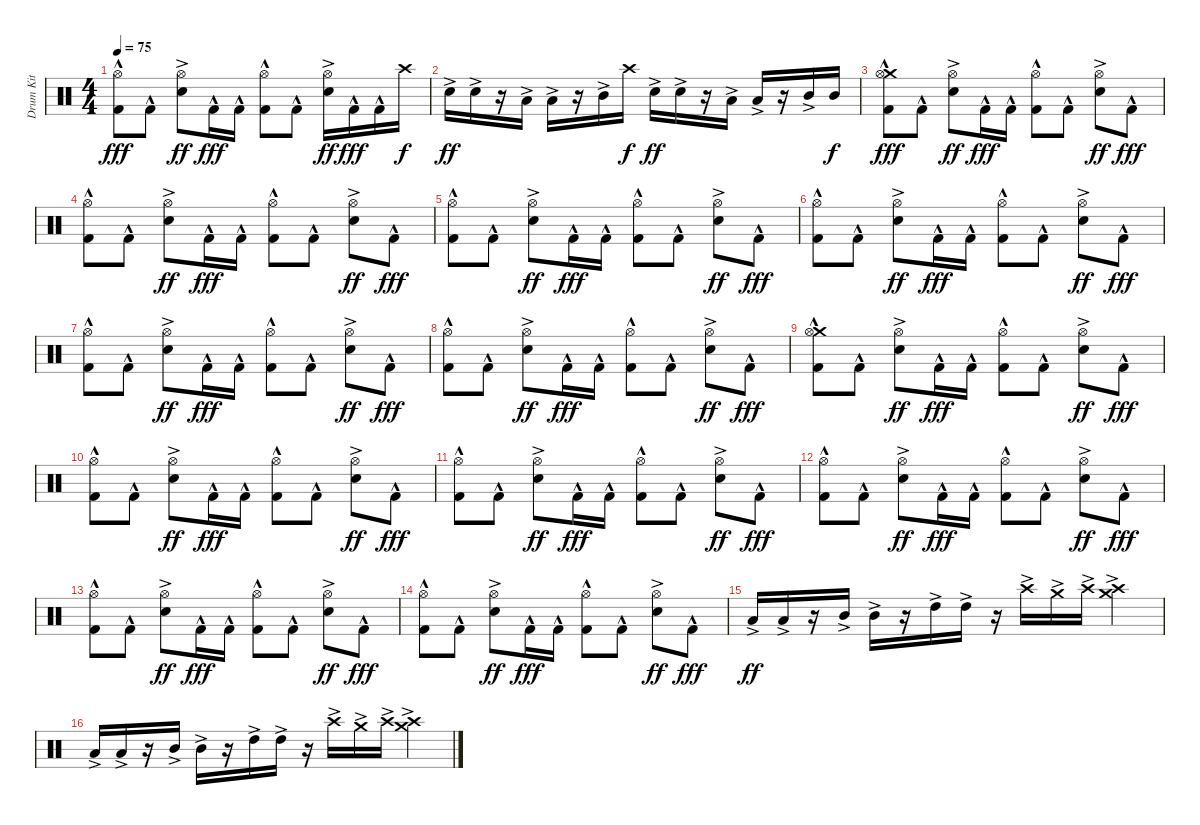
\track ("Drum Kit" "Drum Kit") {instrument percussion}
\staff {score}
\articulation defaults
\ts (4 4)
\tempo 75
\clef neutral
\ks c
("Hi-Hat (open)" "Kick (hit) 2"{hac}).8{dy fff} "Kick (hit) 2"{hac}.8 ("Hi-Hat (open)" "Snare (hit) 2"{ac}).8{dy ff} "Kick (hit) 2"{hac}.16{dy fff} "Kick (hit) 2"{hac}.16 ("Hi-Hat (open)" "Kick (hit) 2"{hac}).8 "Kick (hit) 2"{hac}.8 ("Hi-Hat (open)" "Snare (hit) 2"{ac}).16{dy ff} "Kick (hit) 2"{hac}.16{dy fff} "Kick (hit) 2"{hac}.16 "Crash high (hit)".16{dy f} |
"Snare (hit) 2"{ac}.16{dy ff} "Snare (hit) 2"{ac}.16 r.16 "Low Tom (hit)"{ac}.16 "Low Tom (hit)"{ac}.16 r.16 "Mid Tom (hit)"{ac}.16 "Crash high (hit)".16{dy f} "Snare (hit) 2"{ac}.16{dy ff} "Snare (hit) 2"{ac}.16 r.16 "Low Tom (hit)"{ac}.16 "Low Tom (hit)"{ac}.16 r.16 "Mid Tom (hit)"{ac}.16 "Mid Tom (hit)".16{dy f} |
("Crash medium (hit)" "Hi-Hat (open)" "Kick (hit) 2"{hac}).8{dy fff} "Kick (hit) 2"{hac}.8 ("Hi-Hat (open)" "Snare (hit) 2"{ac}).8{dy ff} "Kick (hit) 2"{hac}.16{dy fff} "Kick (hit) 2"{hac}.16 ("Hi-Hat (open)" "Kick (hit) 2"{hac}).8 "Kick (hit) 2"{hac}.8 ("Hi-Hat (open)" "Snare (hit) 2"{ac}).8{dy ff} "Kick (hit) 2"{hac}.8{dy fff} |
("Hi-Hat (open)" "Kick (hit) 2"{hac}).8 "Kick (hit) 2"{hac}.8 ("Hi-Hat (open)" "Snare (hit) 2"{ac}).8{dy ff} "Kick (hit) 2"{hac}.16{dy fff} "Kick (hit) 2"{hac}.16 ("Hi-Hat (open)" "Kick (hit) 2"{hac}).8 "Kick (hit) 2"{hac}.8 ("Hi-Hat (open)" "Snare (hit) 2"{ac}).8{dy ff} "Kick (hit) 2"{hac}.8{dy fff} |
("Hi-Hat (open)" "Kick (hit) 2"{hac}).8 "Kick (hit) 2"{hac}.8 ("Hi-Hat (open)" "Snare (hit) 2"{ac}).8{dy ff} "Kick (hit) 2"{hac}.16{dy fff} "Kick (hit) 2"{hac}.16 ("Hi-Hat (open)" "Kick (hit) 2"{hac}).8 "Kick (hit) 2"{hac}.8 ("Hi-Hat (open)" "Snare (hit) 2"{ac}).8{dy ff} "Kick (hit) 2"{hac}.8{dy fff} |
("Hi-Hat (open)" "Kick (hit) 2"{hac}).8 "Kick (hit) 2"{hac}.8 ("Hi-Hat (open)" "Snare (hit) 2"{ac}).8{dy ff} "Kick (hit) 2"{hac}.16{dy fff} "Kick (hit) 2"{hac}.16 ("Hi-Hat (open)" "Kick (hit) 2"{hac}).8 "Kick (hit) 2"{hac}.8 ("Hi-Hat (open)" "Snare (hit) 2"{ac}).8{dy ff} "Kick (hit) 2"{hac}.8{dy fff} |
("Hi-Hat (open)" "Kick (hit) 2"{hac}).8 "Kick (hit) 2"{hac}.8 ("Hi-Hat (open)" "Snare (hit) 2"{ac}).8{dy ff} "Kick (hit) 2"{hac}.16{dy fff} "Kick (hit) 2"{hac}.16 ("Hi-Hat (open)" "Kick (hit) 2"{hac}).8 "Kick (hit) 2"{hac}.8 ("Hi-Hat (open)" "Snare (hit) 2"{ac}).8{dy ff} "Kick (hit) 2"{hac}.8{dy fff} |
("Hi-Hat (open)" "Kick (hit) 2"{hac}).8 "Kick (hit) 2"{hac}.8 ("Hi-Hat (open)" "Snare (hit) 2"{ac}).8{dy ff} "Kick (hit) 2"{hac}.16{dy fff} "Kick (hit) 2"{hac}.16 ("Hi-Hat (open)" "Kick (hit) 2"{hac}).8 "Kick (hit) 2"{hac}.8 ("Hi-Hat (open)" "Snare (hit) 2"{ac}).8{dy ff} "Kick (hit) 2"{hac}.8{dy fff} |
("Crash medium (hit)" "Hi-Hat (open)" "Kick (hit) 2"{hac}).8 "Kick (hit) 2"{hac}.8 ("Hi-Hat (open)" "Snare (hit) 2"{ac}).8{dy ff} "Kick (hit) 2"{hac}.16{dy fff} "Kick (hit) 2"{hac}.16 ("Hi-Hat (open)" "Kick (hit) 2"{hac}).8 "Kick (hit) 2"{hac}.8 ("Hi-Hat (open)" "Snare (hit) 2"{ac}).8{dy ff} "Kick (hit) 2"{hac}.8{dy fff} |
("Hi-Hat (open)" "Kick (hit) 2"{hac}).8 "Kick (hit) 2"{hac}.8 ("Hi-Hat (open)" "Snare (hit) 2"{ac}).8{dy ff} "Kick (hit) 2"{hac}.16{dy fff} "Kick (hit) 2"{hac}.16 ("Hi-Hat (open)" "Kick (hit) 2"{hac}).8 "Kick (hit) 2"{hac}.8 ("Hi-Hat (open)" "Snare (hit) 2"{ac}).8{dy ff} "Kick (hit) 2"{hac}.8{dy fff} |
("Hi-Hat (open)" "Kick (hit) 2"{hac}).8 "Kick (hit) 2"{hac}.8 ("Hi-Hat (open)" "Snare (hit) 2"{ac}).8{dy ff} "Kick (hit) 2"{hac}.16{dy fff} "Kick (hit) 2"{hac}.16 ("Hi-Hat (open)" "Kick (hit) 2"{hac}).8 "Kick (hit) 2"{hac}.8 ("Hi-Hat (open)" "Snare (hit) 2"{ac}).8{dy ff} "Kick (hit) 2"{hac}.8{dy fff} |
("Hi-Hat (open)" "Kick (hit) 2"{hac}).8 "Kick (hit) 2"{hac}.8 ("Hi-Hat (open)" "Snare (hit) 2"{ac}).8{dy ff} "Kick (hit) 2"{hac}.16{dy fff} "Kick (hit) 2"{hac}.16 ("Hi-Hat (open)" "Kick (hit) 2"{hac}).8 "Kick (hit) 2"{hac}.8 ("Hi-Hat (open)" "Snare (hit) 2"{ac}).8{dy ff} "Kick (hit) 2"{hac}.8{dy fff} |
("Hi-Hat (open)" "Kick (hit) 2"{hac}).8 "Kick (hit) 2"{hac}.8 ("Hi-Hat (open)" "Snare (hit) 2"{ac}).8{dy ff} "Kick (hit) 2"{hac}.16{dy fff} "Kick (hit) 2"{hac}.16 ("Hi-Hat (open)" "Kick (hit) 2"{hac}).8 "Kick (hit) 2"{hac}.8 ("Hi-Hat (open)" "Snare (hit) 2"{ac}).8{dy ff} "Kick (hit) 2"{hac}.8{dy fff} |
("Hi-Hat (open)" "Kick (hit) 2"{hac}).8 "Kick (hit) 2"{hac}.8 ("Hi-Hat (open)" "Snare (hit) 2"{ac}).8{dy ff} "Kick (hit) 2"{hac}.16{dy fff} "Kick (hit) 2"{hac}.16 ("Hi-Hat (open)" "Kick (hit) 2"{hac}).8 "Kick (hit) 2"{hac}.8 ("Hi-Hat (open)" "Snare (hit) 2"{ac}).8{dy ff} "Kick (hit) 2"{hac}.8{dy fff} |
"Low Tom (hit)"{ac}.16{dy ff} "Low Tom (hit)"{ac}.16 r.16 "Mid Tom (hit)"{ac}.16 "Mid Tom (hit)"{ac}.16 r.16 "High Tom (hit)"{ac}.16 "High Tom (hit)"{ac}.16 r.16 "Crash high (hit)"{ac}.16 "Crash medium (hit)"{ac}.16 "Crash high (hit)"{ac}.16 ("Crash medium (hit)"{ac} "Crash high (hit)"{ac}).4 |
"Low Tom (hit)"{ac}.16 "Low Tom (hit)"{ac}.16 r.16 "Mid Tom (hit)"{ac}.16 "Mid Tom (hit)"{ac}.16 r.16 "High Tom (hit)"{ac}.16 "High Tom (hit)"{ac}.16 r.16 "Crash high (hit)"{ac}.16 "Crash medium (hit)"{ac}.16 "Crash high (hit)"{ac}.16 ("Crash medium (hit)"{ac} "Crash high (hit)"{ac}).4
